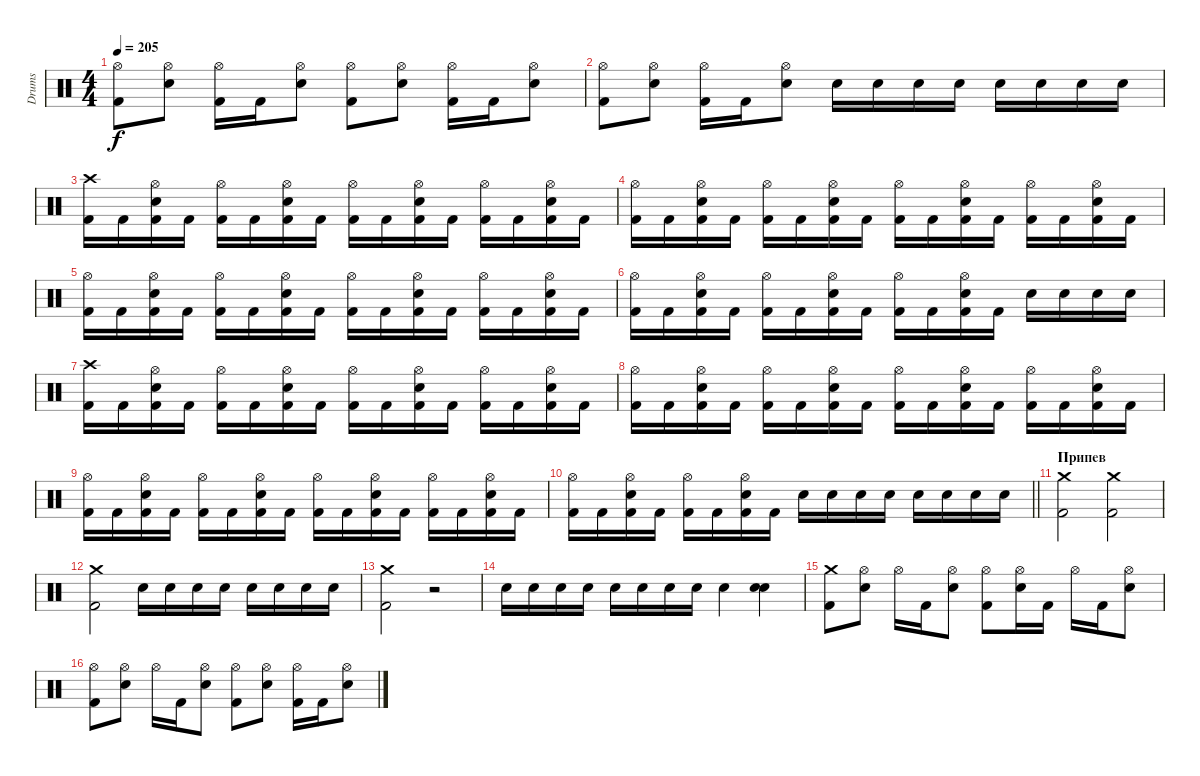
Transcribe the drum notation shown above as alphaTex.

\track ("Drums" "Drums") {instrument percussion}
\staff {score}
\articulation defaults
\ts (4 4)
\tempo 205
\clef neutral
\ks c
("Kick (hit) 2" "Hi-Hat (open)").8{dy f} ("Electric Snare (hit)" "Hi-Hat (open)").8 ("Kick (hit) 2" "Hi-Hat (open)").16 "Kick (hit) 2".16 ("Electric Snare (hit)" "Hi-Hat (open)").8 ("Kick (hit) 2" "Hi-Hat (open)").8 ("Electric Snare (hit)" "Hi-Hat (open)").8 ("Kick (hit) 2" "Hi-Hat (open)").16 "Kick (hit) 2".16 ("Electric Snare (hit)" "Hi-Hat (open)").8 |
("Kick (hit) 2" "Hi-Hat (open)").8 ("Electric Snare (hit)" "Hi-Hat (open)").8 ("Kick (hit) 2" "Hi-Hat (open)").16 "Kick (hit) 2".16 ("Electric Snare (hit)" "Hi-Hat (open)").8 "Electric Snare (hit)".16 "Electric Snare (hit)".16 "Electric Snare (hit)".16 "Electric Snare (hit)".16 "Electric Snare (hit)".16 "Electric Snare (hit)".16 "Electric Snare (hit)".16 "Electric Snare (hit)".16 |
("Kick (hit) 2" "Crash high (hit)").16 "Kick (hit) 2".16 ("Kick (hit) 2" "Electric Snare (hit)" "Hi-Hat (open)").16 "Kick (hit) 2".16 ("Kick (hit) 2" "Hi-Hat (open)").16 "Kick (hit) 2".16 ("Kick (hit) 2" "Electric Snare (hit)" "Hi-Hat (open)").16 "Kick (hit) 2".16 ("Kick (hit) 2" "Hi-Hat (open)").16 "Kick (hit) 2".16 ("Kick (hit) 2" "Electric Snare (hit)" "Hi-Hat (open)").16 "Kick (hit) 2".16 ("Kick (hit) 2" "Hi-Hat (open)").16 "Kick (hit) 2".16 ("Kick (hit) 2" "Electric Snare (hit)" "Hi-Hat (open)").16 "Kick (hit) 2".16 |
("Kick (hit) 2" "Hi-Hat (open)").16 "Kick (hit) 2".16 ("Kick (hit) 2" "Electric Snare (hit)" "Hi-Hat (open)").16 "Kick (hit) 2".16 ("Kick (hit) 2" "Hi-Hat (open)").16 "Kick (hit) 2".16 ("Kick (hit) 2" "Electric Snare (hit)" "Hi-Hat (open)").16 "Kick (hit) 2".16 ("Kick (hit) 2" "Hi-Hat (open)").16 "Kick (hit) 2".16 ("Kick (hit) 2" "Electric Snare (hit)" "Hi-Hat (open)").16 "Kick (hit) 2".16 ("Kick (hit) 2" "Hi-Hat (open)").16 "Kick (hit) 2".16 ("Kick (hit) 2" "Electric Snare (hit)" "Hi-Hat (open)").16 "Kick (hit) 2".16 |
("Kick (hit) 2" "Hi-Hat (open)").16 "Kick (hit) 2".16 ("Kick (hit) 2" "Electric Snare (hit)" "Hi-Hat (open)").16 "Kick (hit) 2".16 ("Kick (hit) 2" "Hi-Hat (open)").16 "Kick (hit) 2".16 ("Kick (hit) 2" "Electric Snare (hit)" "Hi-Hat (open)").16 "Kick (hit) 2".16 ("Kick (hit) 2" "Hi-Hat (open)").16 "Kick (hit) 2".16 ("Kick (hit) 2" "Electric Snare (hit)" "Hi-Hat (open)").16 "Kick (hit) 2".16 ("Kick (hit) 2" "Hi-Hat (open)").16 "Kick (hit) 2".16 ("Kick (hit) 2" "Electric Snare (hit)" "Hi-Hat (open)").16 "Kick (hit) 2".16 |
("Kick (hit) 2" "Hi-Hat (open)").16 "Kick (hit) 2".16 ("Kick (hit) 2" "Electric Snare (hit)" "Hi-Hat (open)").16 "Kick (hit) 2".16 ("Kick (hit) 2" "Hi-Hat (open)").16 "Kick (hit) 2".16 ("Kick (hit) 2" "Electric Snare (hit)" "Hi-Hat (open)").16 "Kick (hit) 2".16 ("Kick (hit) 2" "Hi-Hat (open)").16 "Kick (hit) 2".16 ("Kick (hit) 2" "Electric Snare (hit)" "Hi-Hat (open)").16 "Kick (hit) 2".16 "Electric Snare (hit)".16 "Electric Snare (hit)".16 "Electric Snare (hit)".16 "Electric Snare (hit)".16 |
("Kick (hit) 2" "Crash high (hit)").16 "Kick (hit) 2".16 ("Kick (hit) 2" "Electric Snare (hit)" "Hi-Hat (open)").16 "Kick (hit) 2".16 ("Kick (hit) 2" "Hi-Hat (open)").16 "Kick (hit) 2".16 ("Kick (hit) 2" "Electric Snare (hit)" "Hi-Hat (open)").16 "Kick (hit) 2".16 ("Kick (hit) 2" "Hi-Hat (open)").16 "Kick (hit) 2".16 ("Kick (hit) 2" "Electric Snare (hit)" "Hi-Hat (open)").16 "Kick (hit) 2".16 ("Kick (hit) 2" "Hi-Hat (open)").16 "Kick (hit) 2".16 ("Kick (hit) 2" "Electric Snare (hit)" "Hi-Hat (open)").16 "Kick (hit) 2".16 |
("Kick (hit) 2" "Hi-Hat (open)").16 "Kick (hit) 2".16 ("Kick (hit) 2" "Electric Snare (hit)" "Hi-Hat (open)").16 "Kick (hit) 2".16 ("Kick (hit) 2" "Hi-Hat (open)").16 "Kick (hit) 2".16 ("Kick (hit) 2" "Electric Snare (hit)" "Hi-Hat (open)").16 "Kick (hit) 2".16 ("Kick (hit) 2" "Hi-Hat (open)").16 "Kick (hit) 2".16 ("Kick (hit) 2" "Electric Snare (hit)" "Hi-Hat (open)").16 "Kick (hit) 2".16 ("Kick (hit) 2" "Hi-Hat (open)").16 "Kick (hit) 2".16 ("Kick (hit) 2" "Electric Snare (hit)" "Hi-Hat (open)").16 "Kick (hit) 2".16 |
("Kick (hit) 2" "Hi-Hat (open)").16 "Kick (hit) 2".16 ("Kick (hit) 2" "Electric Snare (hit)" "Hi-Hat (open)").16 "Kick (hit) 2".16 ("Kick (hit) 2" "Hi-Hat (open)").16 "Kick (hit) 2".16 ("Kick (hit) 2" "Electric Snare (hit)" "Hi-Hat (open)").16 "Kick (hit) 2".16 ("Kick (hit) 2" "Hi-Hat (open)").16 "Kick (hit) 2".16 ("Kick (hit) 2" "Electric Snare (hit)" "Hi-Hat (open)").16 "Kick (hit) 2".16 ("Kick (hit) 2" "Hi-Hat (open)").16 "Kick (hit) 2".16 ("Kick (hit) 2" "Electric Snare (hit)" "Hi-Hat (open)").16 "Kick (hit) 2".16 |
\barLineRight lightlight
("Kick (hit) 2" "Hi-Hat (open)").16 "Kick (hit) 2".16 ("Kick (hit) 2" "Electric Snare (hit)" "Hi-Hat (open)").16 "Kick (hit) 2".16 ("Kick (hit) 2" "Hi-Hat (open)").16 "Kick (hit) 2".16 ("Kick (hit) 2" "Electric Snare (hit)" "Hi-Hat (open)").16 "Kick (hit) 2".16 "Electric Snare (hit)".16 "Electric Snare (hit)".16 "Electric Snare (hit)".16 "Electric Snare (hit)".16 "Electric Snare (hit)".16 "Electric Snare (hit)".16 "Electric Snare (hit)".16 "Electric Snare (hit)".16 |
\section ("" "Припев")
("Kick (hit) 2" "Crash medium (hit)").2 ("Kick (hit) 2" "Crash medium (hit)").2 |
("Kick (hit) 2" "Crash medium (hit)").2 "Electric Snare (hit)".16 "Electric Snare (hit)".16 "Electric Snare (hit)".16 "Electric Snare (hit)".16 "Electric Snare (hit)".16 "Electric Snare (hit)".16 "Electric Snare (hit)".16 "Electric Snare (hit)".16 |
("Kick (hit) 2" "Crash medium (hit)").2 r.2 |
"Electric Snare (hit)".16 "Electric Snare (hit)".16 "Electric Snare (hit)".16 "Electric Snare (hit)".16 "Electric Snare (hit)".16 "Electric Snare (hit)".16 "Electric Snare (hit)".16 "Electric Snare (hit)".16 "Electric Snare (hit)".4 ("Electric Snare (hit)" "Electric Snare (hit)").4 |
("Kick (hit) 2" "Crash medium (hit)").8 ("Electric Snare (hit)" "Hi-Hat (open)").8 "Hi-Hat (open)".16 "Kick (hit) 2".16 ("Electric Snare (hit)" "Hi-Hat (open)").8 ("Kick (hit) 2" "Hi-Hat (open)").8 ("Electric Snare (hit)" "Hi-Hat (open)").16 "Kick (hit) 2".16 "Hi-Hat (open)".16 "Kick (hit) 2".16 ("Electric Snare (hit)" "Hi-Hat (open)").8 |
("Kick (hit) 2" "Hi-Hat (open)").8 ("Electric Snare (hit)" "Hi-Hat (open)").8 "Hi-Hat (open)".16 "Kick (hit) 2".16 ("Electric Snare (hit)" "Hi-Hat (open)").8 ("Kick (hit) 2" "Hi-Hat (open)").8 ("Electric Snare (hit)" "Hi-Hat (open)").8 ("Kick (hit) 2" "Hi-Hat (open)").16 "Kick (hit) 2".16 ("Electric Snare (hit)" "Hi-Hat (open)").8
